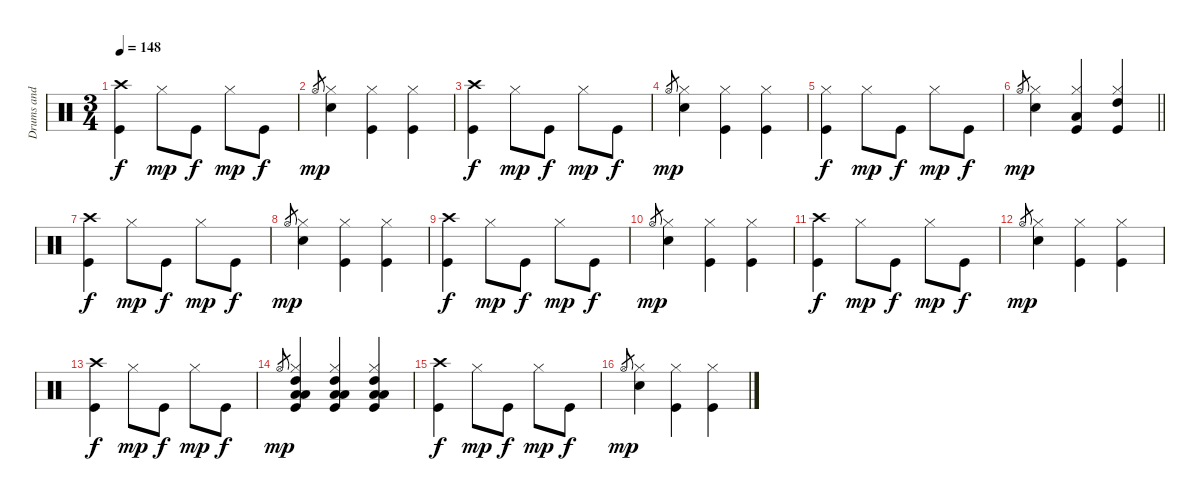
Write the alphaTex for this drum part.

\track ("Drums and percussion" "Drums and ") {instrument percussion}
\staff {score}
\articulation defaults
\ts (3 4)
\tempo 148
\clef neutral
\ks c
("Crash high (hit)" "Kick (hit)").4{dy f} "Hi-Hat (closed)".8{dy mp} "Kick (hit)".8{dy f} "Hi-Hat (closed)".8{dy mp} "Kick (hit)".8{dy f} |
"Hi-Hat (open)".8{gr dy mp} ("Hi-Hat (closed)" "Electric Snare (hit)").4 ("Hi-Hat (closed)" "Kick (hit)").4 ("Hi-Hat (closed)" "Kick (hit)").4 |
("Crash high (hit)" "Kick (hit)").4{dy f} "Hi-Hat (closed)".8{dy mp} "Kick (hit)".8{dy f} "Hi-Hat (closed)".8{dy mp} "Kick (hit)".8{dy f} |
"Hi-Hat (open)".8{gr dy mp} ("Hi-Hat (closed)" "Electric Snare (hit)").4 ("Hi-Hat (closed)" "Kick (hit)").4 ("Hi-Hat (closed)" "Kick (hit)").4 |
("Hi-Hat (closed)" "Kick (hit)").4{dy f} "Hi-Hat (closed)".8{dy mp} "Kick (hit)".8{dy f} "Hi-Hat (closed)".8{dy mp} "Kick (hit)".8{dy f} |
\barLineRight lightlight "Hi-Hat (open)".8{gr dy mp}
("Hi-Hat (closed)" "Electric Snare (hit)").4 ("Hi-Hat (closed)" "Low Tom (hit)" "Kick (hit)").4 ("Hi-Hat (closed)" "High Tom (hit)" "Kick (hit)").4 |
("Crash high (hit)" "Kick (hit)").4{dy f} "Hi-Hat (closed)".8{dy mp} "Kick (hit)".8{dy f} "Hi-Hat (closed)".8{dy mp} "Kick (hit)".8{dy f} |
"Hi-Hat (open)".8{gr dy mp} ("Hi-Hat (closed)" "Electric Snare (hit)").4 ("Hi-Hat (closed)" "Kick (hit)").4 ("Hi-Hat (closed)" "Kick (hit)").4 |
("Crash high (hit)" "Kick (hit)").4{dy f} "Hi-Hat (closed)".8{dy mp} "Kick (hit)".8{dy f} "Hi-Hat (closed)".8{dy mp} "Kick (hit)".8{dy f} |
"Hi-Hat (open)".8{gr dy mp} ("Hi-Hat (closed)" "Electric Snare (hit)").4 ("Hi-Hat (closed)" "Kick (hit)").4 ("Hi-Hat (closed)" "Kick (hit)").4 |
("Crash high (hit)" "Kick (hit)").4{dy f} "Hi-Hat (closed)".8{dy mp} "Kick (hit)".8{dy f} "Hi-Hat (closed)".8{dy mp} "Kick (hit)".8{dy f} |
"Hi-Hat (open)".8{gr dy mp} ("Hi-Hat (closed)" "Electric Snare (hit)").4 ("Hi-Hat (closed)" "Kick (hit)").4 ("Hi-Hat (closed)" "Kick (hit)").4 |
("Crash high (hit)" "Kick (hit)").4{dy f} "Hi-Hat (closed)".8{dy mp} "Kick (hit)".8{dy f} "Hi-Hat (closed)".8{dy mp} "Kick (hit)".8{dy f} |
"Hi-Hat (open)".8{gr dy mp} ("Hi-Hat (closed)" "High Tom (hit)" "Low Floor Tom (hit)" "Low Tom (hit)" "Kick (hit)").4 ("Hi-Hat (closed)" "High Tom (hit)" "Low Floor Tom (hit)" "Low Tom (hit)" "Kick (hit)").4 ("Hi-Hat (closed)" "High Tom (hit)" "Low Floor Tom (hit)" "Low Tom (hit)" "Kick (hit)").4 |
("Crash high (hit)" "Kick (hit)").4{dy f} "Hi-Hat (closed)".8{dy mp} "Kick (hit)".8{dy f} "Hi-Hat (closed)".8{dy mp} "Kick (hit)".8{dy f} |
"Hi-Hat (open)".8{gr dy mp} ("Hi-Hat (closed)" "Electric Snare (hit)").4 ("Hi-Hat (closed)" "Kick (hit)").4 ("Hi-Hat (closed)" "Kick (hit)").4
